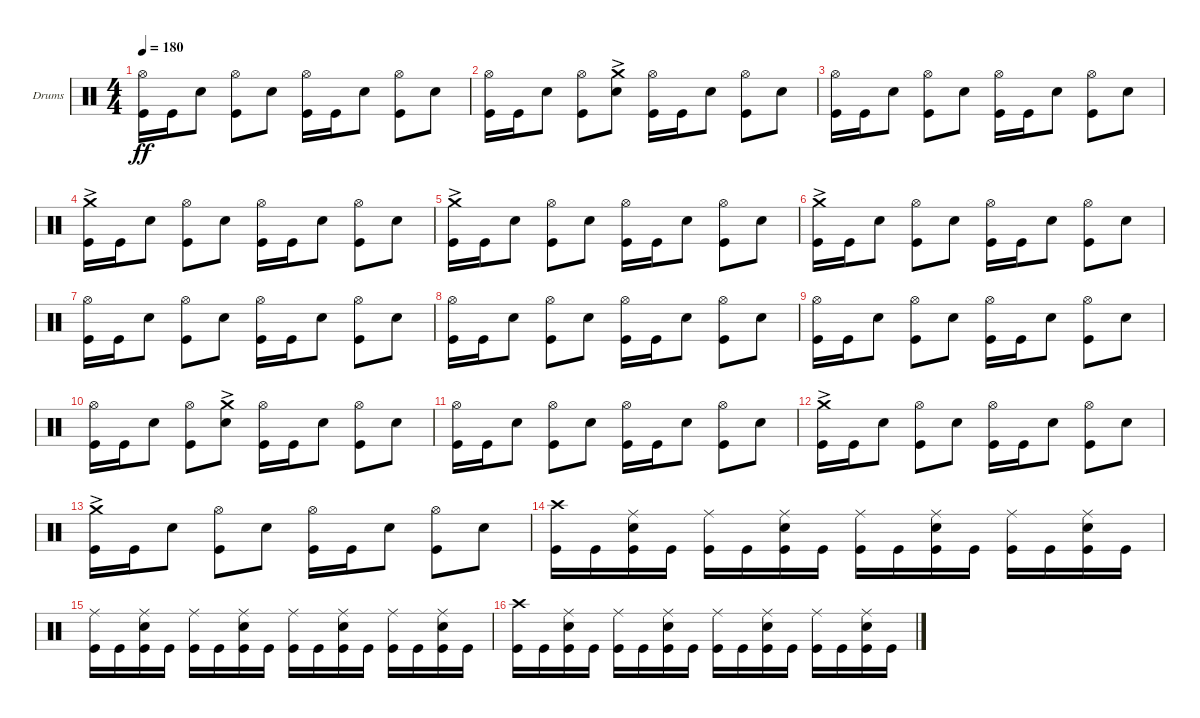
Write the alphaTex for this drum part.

\bracketExtendMode groupsimilarinstruments
\firstSystemTrackNameOrientation horizontal
\otherSystemsTrackNameOrientation horizontal
\track ("Drumkit" "Drums") {instrument percussion}
\staff {score}
\articulation defaults
\ts (4 4)
\tempo 180
\clef neutral
\scale
1.02648
\ks c
("Kick (hit)" "Hi-Hat (open)").16{dy ff} "Kick (hit)".16 "Snare (hit) 2".8 ("Kick (hit)" "Hi-Hat (open)").8 "Snare (hit) 2".8 ("Kick (hit)" "Hi-Hat (open)").16 "Kick (hit)".16 "Snare (hit) 2".8 ("Kick (hit)" "Hi-Hat (open)").8 "Snare (hit) 2".8 |
\scale
0.973518 ("Kick (hit)" "Hi-Hat (open)").16 "Kick (hit)".16 "Snare (hit) 2".8 ("Kick (hit)" "Hi-Hat (open)").8 ("Snare (hit) 2" "Crash medium (hit)"{ac}).8 ("Kick (hit)" "Hi-Hat (open)").16 "Kick (hit)".16 "Snare (hit) 2".8 ("Kick (hit)" "Hi-Hat (open)").8 "Snare (hit) 2".8 |
\scale
1.02648 ("Kick (hit)" "Hi-Hat (open)").16 "Kick (hit)".16 "Snare (hit) 2".8 ("Kick (hit)" "Hi-Hat (open)").8 "Snare (hit) 2".8 ("Kick (hit)" "Hi-Hat (open)").16 "Kick (hit)".16 "Snare (hit) 2".8 ("Kick (hit)" "Hi-Hat (open)").8 "Snare (hit) 2".8 |
\scale
0.973518 ("Kick (hit)" "Crash medium (hit)"{ac}).16 "Kick (hit)".16 "Snare (hit) 2".8 ("Kick (hit)" "Hi-Hat (open)").8 "Snare (hit) 2".8 ("Kick (hit)" "Hi-Hat (open)").16 "Kick (hit)".16 "Snare (hit) 2".8 ("Kick (hit)" "Hi-Hat (open)").8 "Snare (hit) 2".8 |
\scale
1.02648 ("Kick (hit)" "Crash medium (hit)"{ac}).16 "Kick (hit)".16 "Snare (hit) 2".8 ("Kick (hit)" "Hi-Hat (open)").8 "Snare (hit) 2".8 ("Kick (hit)" "Hi-Hat (open)").16 "Kick (hit)".16 "Snare (hit) 2".8 ("Kick (hit)" "Hi-Hat (open)").8 "Snare (hit) 2".8 |
\scale
0.973518 ("Kick (hit)" "Crash medium (hit)"{ac}).16 "Kick (hit)".16 "Snare (hit) 2".8 ("Kick (hit)" "Hi-Hat (open)").8 "Snare (hit) 2".8 ("Kick (hit)" "Hi-Hat (open)").16 "Kick (hit)".16 "Snare (hit) 2".8 ("Kick (hit)" "Hi-Hat (open)").8 "Snare (hit) 2".8 |
\scale
1.02648 ("Kick (hit)" "Hi-Hat (open)").16 "Kick (hit)".16 "Snare (hit) 2".8 ("Kick (hit)" "Hi-Hat (open)").8 "Snare (hit) 2".8 ("Kick (hit)" "Hi-Hat (open)").16 "Kick (hit)".16 "Snare (hit) 2".8 ("Kick (hit)" "Hi-Hat (open)").8 "Snare (hit) 2".8 |
\scale
0.973518 ("Kick (hit)" "Hi-Hat (open)").16 "Kick (hit)".16 "Snare (hit) 2".8 ("Kick (hit)" "Hi-Hat (open)").8 "Snare (hit) 2".8 ("Kick (hit)" "Hi-Hat (open)").16 "Kick (hit)".16 "Snare (hit) 2".8 ("Kick (hit)" "Hi-Hat (open)").8 "Snare (hit) 2".8 |
\scale
1.02648 ("Kick (hit)" "Hi-Hat (open)").16 "Kick (hit)".16 "Snare (hit) 2".8 ("Kick (hit)" "Hi-Hat (open)").8 "Snare (hit) 2".8 ("Kick (hit)" "Hi-Hat (open)").16 "Kick (hit)".16 "Snare (hit) 2".8 ("Kick (hit)" "Hi-Hat (open)").8 "Snare (hit) 2".8 |
\scale
0.973518 ("Kick (hit)" "Hi-Hat (open)").16 "Kick (hit)".16 "Snare (hit) 2".8 ("Kick (hit)" "Hi-Hat (open)").8 ("Snare (hit) 2" "Crash medium (hit)"{ac}).8 ("Kick (hit)" "Hi-Hat (open)").16 "Kick (hit)".16 "Snare (hit) 2".8 ("Kick (hit)" "Hi-Hat (open)").8 "Snare (hit) 2".8 |
\scale
1.02648 ("Kick (hit)" "Hi-Hat (open)").16 "Kick (hit)".16 "Snare (hit) 2".8 ("Kick (hit)" "Hi-Hat (open)").8 "Snare (hit) 2".8 ("Kick (hit)" "Hi-Hat (open)").16 "Kick (hit)".16 "Snare (hit) 2".8 ("Kick (hit)" "Hi-Hat (open)").8 "Snare (hit) 2".8 |
\scale
0.973518 ("Kick (hit)" "Crash medium (hit)"{ac}).16 "Kick (hit)".16 "Snare (hit) 2".8 ("Kick (hit)" "Hi-Hat (open)").8 "Snare (hit) 2".8 ("Kick (hit)" "Hi-Hat (open)").16 "Kick (hit)".16 "Snare (hit) 2".8 ("Kick (hit)" "Hi-Hat (open)").8 "Snare (hit) 2".8 |
\scale
1.02648 ("Kick (hit)" "Crash medium (hit)"{ac}).16 "Kick (hit)".16 "Snare (hit) 2".8 ("Kick (hit)" "Hi-Hat (open)").8 "Snare (hit) 2".8 ("Kick (hit)" "Hi-Hat (open)").16 "Kick (hit)".16 "Snare (hit) 2".8 ("Kick (hit)" "Hi-Hat (open)").8 "Snare (hit) 2".8 |
\scale
0.973518 ("Kick (hit)" "Crash high (hit)").16 "Kick (hit)".16 ("Snare (hit) 2" "Kick (hit)" "Ride (middle)").16 "Kick (hit)".16 ("Kick (hit)" "Ride (middle)").16 "Kick (hit)".16 ("Kick (hit)" "Snare (hit) 2" "Ride (middle)").16 "Kick (hit)".16 ("Kick (hit)" "Ride (middle)").16 "Kick (hit)".16 ("Snare (hit) 2" "Kick (hit)" "Ride (middle)").16 "Kick (hit)".16 ("Kick (hit)" "Ride (middle)").16 "Kick (hit)".16 ("Kick (hit)" "Snare (hit) 2" "Ride (middle)").16 "Kick (hit)".16 |
\scale
1.02648 ("Kick (hit)" "Ride (middle)").16 "Kick (hit)".16 ("Snare (hit) 2" "Kick (hit)" "Ride (middle)").16 "Kick (hit)".16 ("Kick (hit)" "Ride (middle)").16 "Kick (hit)".16 ("Kick (hit)" "Snare (hit) 2" "Ride (middle)").16 "Kick (hit)".16 ("Kick (hit)" "Ride (middle)").16 "Kick (hit)".16 ("Snare (hit) 2" "Kick (hit)" "Ride (middle)").16 "Kick (hit)".16 ("Kick (hit)" "Ride (middle)").16 "Kick (hit)".16 ("Kick (hit)" "Snare (hit) 2" "Ride (middle)").16 "Kick (hit)".16 |
\scale
0.973518 ("Kick (hit)" "Crash high (hit)").16 "Kick (hit)".16 ("Snare (hit) 2" "Kick (hit)" "Ride (middle)").16 "Kick (hit)".16 ("Kick (hit)" "Ride (middle)").16 "Kick (hit)".16 ("Kick (hit)" "Snare (hit) 2" "Ride (middle)").16 "Kick (hit)".16 ("Kick (hit)" "Ride (middle)").16 "Kick (hit)".16 ("Snare (hit) 2" "Kick (hit)" "Ride (middle)").16 "Kick (hit)".16 ("Kick (hit)" "Ride (middle)").16 "Kick (hit)".16 ("Kick (hit)" "Snare (hit) 2" "Ride (middle)").16 "Kick (hit)".16
